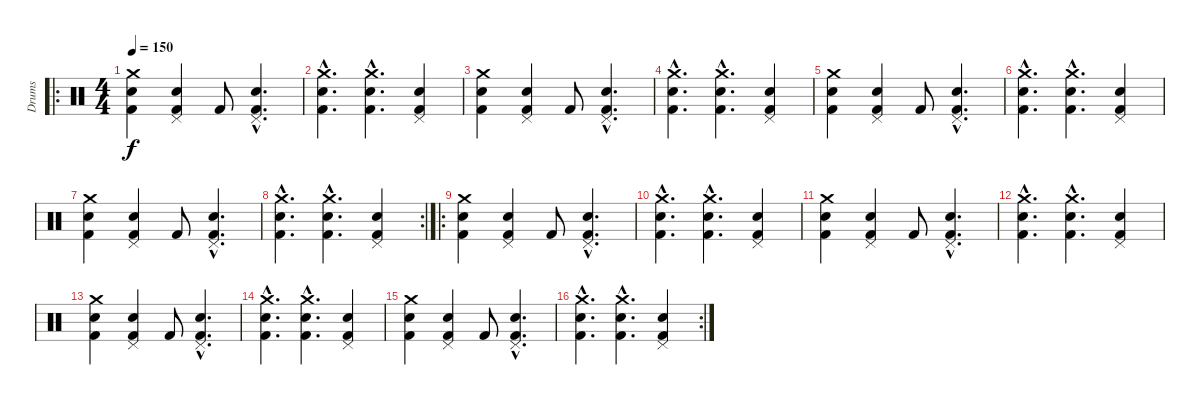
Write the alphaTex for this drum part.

\track ("Drums" "Drums") {instrument percussion}
\staff {score}
\articulation defaults
\ro
\ts (4 4)
\tempo 150
\clef neutral
\ks c
("Crash medium (hit)" "Snare (hit) 2" "Kick (hit) 2").4{dy f} ("Pedal Hi-Hat (hit)" "Snare (hit) 2" "Kick (hit) 2").4 "Kick (hit) 2".8 ("Pedal Hi-Hat (hit)"{hac} "Snare (hit) 2"{hac} "Kick (hit) 2"{hac}).4{d} |
("Crash medium (hit)"{hac} "Snare (hit) 2"{hac} "Kick (hit) 2"{hac}).4{d} ("Crash medium (hit)"{hac} "Snare (hit) 2"{hac} "Kick (hit) 2"{hac}).4{d} ("Pedal Hi-Hat (hit)" "Snare (hit) 2" "Kick (hit) 2").4 |
("Crash medium (hit)" "Snare (hit) 2" "Kick (hit) 2").4 ("Pedal Hi-Hat (hit)" "Snare (hit) 2" "Kick (hit) 2").4 "Kick (hit) 2".8 ("Pedal Hi-Hat (hit)"{hac} "Snare (hit) 2"{hac} "Kick (hit) 2"{hac}).4{d} |
("Crash medium (hit)"{hac} "Snare (hit) 2"{hac} "Kick (hit) 2"{hac}).4{d} ("Crash medium (hit)"{hac} "Snare (hit) 2"{hac} "Kick (hit) 2"{hac}).4{d} ("Pedal Hi-Hat (hit)" "Snare (hit) 2" "Kick (hit) 2").4 |
("Crash medium (hit)" "Snare (hit) 2" "Kick (hit) 2").4 ("Pedal Hi-Hat (hit)" "Snare (hit) 2" "Kick (hit) 2").4 "Kick (hit) 2".8 ("Pedal Hi-Hat (hit)"{hac} "Snare (hit) 2"{hac} "Kick (hit) 2"{hac}).4{d} |
("Crash medium (hit)"{hac} "Snare (hit) 2"{hac} "Kick (hit) 2"{hac}).4{d} ("Crash medium (hit)"{hac} "Snare (hit) 2"{hac} "Kick (hit) 2"{hac}).4{d} ("Pedal Hi-Hat (hit)" "Snare (hit) 2" "Kick (hit) 2").4 |
("Crash medium (hit)" "Snare (hit) 2" "Kick (hit) 2").4 ("Pedal Hi-Hat (hit)" "Snare (hit) 2" "Kick (hit) 2").4 "Kick (hit) 2".8 ("Pedal Hi-Hat (hit)"{hac} "Snare (hit) 2"{hac} "Kick (hit) 2"{hac}).4{d} |
\rc 2
("Crash medium (hit)"{hac} "Snare (hit) 2"{hac} "Kick (hit) 2"{hac}).4{d} ("Crash medium (hit)"{hac} "Snare (hit) 2"{hac} "Kick (hit) 2"{hac}).4{d} ("Pedal Hi-Hat (hit)" "Snare (hit) 2" "Kick (hit) 2").4 |
\ro
("Crash medium (hit)" "Snare (hit) 2" "Kick (hit) 2").4 ("Pedal Hi-Hat (hit)" "Snare (hit) 2" "Kick (hit) 2").4 "Kick (hit) 2".8 ("Pedal Hi-Hat (hit)"{hac} "Snare (hit) 2"{hac} "Kick (hit) 2"{hac}).4{d} |
("Crash medium (hit)"{hac} "Snare (hit) 2"{hac} "Kick (hit) 2"{hac}).4{d} ("Crash medium (hit)"{hac} "Snare (hit) 2"{hac} "Kick (hit) 2"{hac}).4{d} ("Pedal Hi-Hat (hit)" "Snare (hit) 2" "Kick (hit) 2").4 |
("Crash medium (hit)" "Snare (hit) 2" "Kick (hit) 2").4 ("Pedal Hi-Hat (hit)" "Snare (hit) 2" "Kick (hit) 2").4 "Kick (hit) 2".8 ("Pedal Hi-Hat (hit)"{hac} "Snare (hit) 2"{hac} "Kick (hit) 2"{hac}).4{d} |
("Crash medium (hit)"{hac} "Snare (hit) 2"{hac} "Kick (hit) 2"{hac}).4{d} ("Crash medium (hit)"{hac} "Snare (hit) 2"{hac} "Kick (hit) 2"{hac}).4{d} ("Pedal Hi-Hat (hit)" "Snare (hit) 2" "Kick (hit) 2").4 |
("Crash medium (hit)" "Snare (hit) 2" "Kick (hit) 2").4 ("Pedal Hi-Hat (hit)" "Snare (hit) 2" "Kick (hit) 2").4 "Kick (hit) 2".8 ("Pedal Hi-Hat (hit)"{hac} "Snare (hit) 2"{hac} "Kick (hit) 2"{hac}).4{d} |
("Crash medium (hit)"{hac} "Snare (hit) 2"{hac} "Kick (hit) 2"{hac}).4{d} ("Crash medium (hit)"{hac} "Snare (hit) 2"{hac} "Kick (hit) 2"{hac}).4{d} ("Pedal Hi-Hat (hit)" "Snare (hit) 2" "Kick (hit) 2").4 |
("Crash medium (hit)" "Snare (hit) 2" "Kick (hit) 2").4 ("Pedal Hi-Hat (hit)" "Snare (hit) 2" "Kick (hit) 2").4 "Kick (hit) 2".8 ("Pedal Hi-Hat (hit)"{hac} "Snare (hit) 2"{hac} "Kick (hit) 2"{hac}).4{d} |
\rc 2
("Crash medium (hit)"{hac} "Snare (hit) 2"{hac} "Kick (hit) 2"{hac}).4{d} ("Crash medium (hit)"{hac} "Snare (hit) 2"{hac} "Kick (hit) 2"{hac}).4{d} ("Pedal Hi-Hat (hit)" "Snare (hit) 2" "Kick (hit) 2").4
